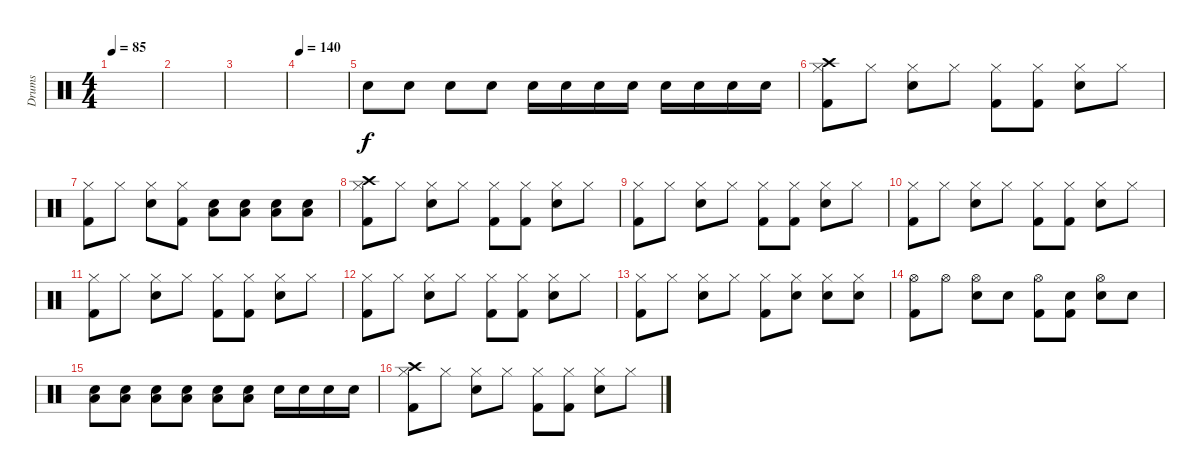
\track ("Drums" "Drums") {instrument percussion}
\staff {score}
\articulation defaults
\ts (4 4)
\tempo 85
\clef neutral
\ks c
|
|
|
\tempo 140
|
"Snare (hit)"{x}.8 "Snare (hit)"{x}.8 "Snare (hit)"{x}.8 "Snare (hit)"{x}.8 "Electric Snare (hit)".16 "Electric Snare (hit)".16 "Electric Snare (hit)".16 "Electric Snare (hit)".16 "Electric Snare (hit)".16 "Electric Snare (hit)".16 "Electric Snare (hit)".16 "Electric Snare (hit)".16 |
("Hi-Hat (closed)" "Kick (hit) 2" "Crash high (hit)").8 "Hi-Hat (closed)".8 ("Hi-Hat (closed)" "Electric Snare (hit)").8 "Hi-Hat (closed)".8 ("Hi-Hat (closed)" "Kick (hit) 2").8 ("Hi-Hat (closed)" "Kick (hit) 2").8 ("Hi-Hat (closed)" "Electric Snare (hit)").8 "Hi-Hat (closed)".8 |
("Hi-Hat (closed)" "Kick (hit) 2").8 "Hi-Hat (closed)".8 ("Hi-Hat (closed)" "Electric Snare (hit)").8 ("Hi-Hat (closed)" "Kick (hit) 2").8 ("Electric Snare (hit)" "Low Tom (hit)").8 ("Electric Snare (hit)" "Low Tom (hit)").8 ("Electric Snare (hit)" "Low Tom (hit)").8 ("Electric Snare (hit)" "Low Tom (hit)").8 |
("Hi-Hat (closed)" "Kick (hit) 2" "Crash high (hit)").8 "Hi-Hat (closed)".8 ("Hi-Hat (closed)" "Electric Snare (hit)").8 "Hi-Hat (closed)".8 ("Hi-Hat (closed)" "Kick (hit) 2").8 ("Hi-Hat (closed)" "Kick (hit) 2").8 ("Hi-Hat (closed)" "Electric Snare (hit)").8 "Hi-Hat (closed)".8 |
("Hi-Hat (closed)" "Kick (hit) 2").8 "Hi-Hat (closed)".8 ("Hi-Hat (closed)" "Electric Snare (hit)").8 "Hi-Hat (closed)".8 ("Hi-Hat (closed)" "Kick (hit) 2").8 ("Hi-Hat (closed)" "Kick (hit) 2").8 ("Hi-Hat (closed)" "Electric Snare (hit)").8 "Hi-Hat (closed)".8 |
("Hi-Hat (closed)" "Kick (hit) 2").8 "Hi-Hat (closed)".8 ("Hi-Hat (closed)" "Electric Snare (hit)").8 "Hi-Hat (closed)".8 ("Hi-Hat (closed)" "Kick (hit) 2").8 ("Hi-Hat (closed)" "Kick (hit) 2").8 ("Hi-Hat (closed)" "Electric Snare (hit)").8 "Hi-Hat (closed)".8 |
("Hi-Hat (closed)" "Kick (hit) 2").8 "Hi-Hat (closed)".8 ("Hi-Hat (closed)" "Electric Snare (hit)").8 "Hi-Hat (closed)".8 ("Hi-Hat (closed)" "Kick (hit) 2").8 ("Hi-Hat (closed)" "Kick (hit) 2").8 ("Hi-Hat (closed)" "Electric Snare (hit)").8 "Hi-Hat (closed)".8 |
("Hi-Hat (closed)" "Kick (hit) 2").8 "Hi-Hat (closed)".8 ("Hi-Hat (closed)" "Electric Snare (hit)").8 "Hi-Hat (closed)".8 ("Hi-Hat (closed)" "Kick (hit) 2").8 ("Hi-Hat (closed)" "Kick (hit) 2").8 ("Hi-Hat (closed)" "Electric Snare (hit)").8 "Hi-Hat (closed)".8 |
("Hi-Hat (closed)" "Kick (hit) 2").8 "Hi-Hat (closed)".8 ("Hi-Hat (closed)" "Electric Snare (hit)").8 "Hi-Hat (closed)".8 ("Hi-Hat (closed)" "Kick (hit) 2").8 ("Hi-Hat (closed)" "Electric Snare (hit)").8 ("Hi-Hat (closed)" "Electric Snare (hit)").8 ("Hi-Hat (closed)" "Electric Snare (hit)").8 |
("Hi-Hat (open)" "Kick (hit) 2").8 "Hi-Hat (open)"{x}.8 ("Hi-Hat (open)" "Electric Snare (hit)").8 "Snare (hit)"{x}.8 ("Hi-Hat (open)" "Kick (hit) 2").8 ("Snare (hit)"{x} "Kick (hit) 2").8 ("Hi-Hat (open)" "Electric Snare (hit)").8 "Snare (hit)"{x}.8 |
("Electric Snare (hit)" "Low Tom (hit)").8 ("Electric Snare (hit)" "Low Tom (hit)").8 ("Electric Snare (hit)" "Low Tom (hit)").8 ("Electric Snare (hit)" "Low Tom (hit)").8 ("Electric Snare (hit)" "Low Tom (hit)").8 ("Electric Snare (hit)" "Low Tom (hit)").8 "Electric Snare (hit)".16 "Electric Snare (hit)".16 "Electric Snare (hit)".16 "Electric Snare (hit)".16 |
("Hi-Hat (closed)" "Kick (hit) 2" "Crash high (hit)").8 "Hi-Hat (closed)".8 ("Hi-Hat (closed)" "Electric Snare (hit)").8 "Hi-Hat (closed)".8 ("Hi-Hat (closed)" "Kick (hit) 2").8 ("Hi-Hat (closed)" "Kick (hit) 2").8 ("Hi-Hat (closed)" "Electric Snare (hit)").8 "Hi-Hat (closed)".8
